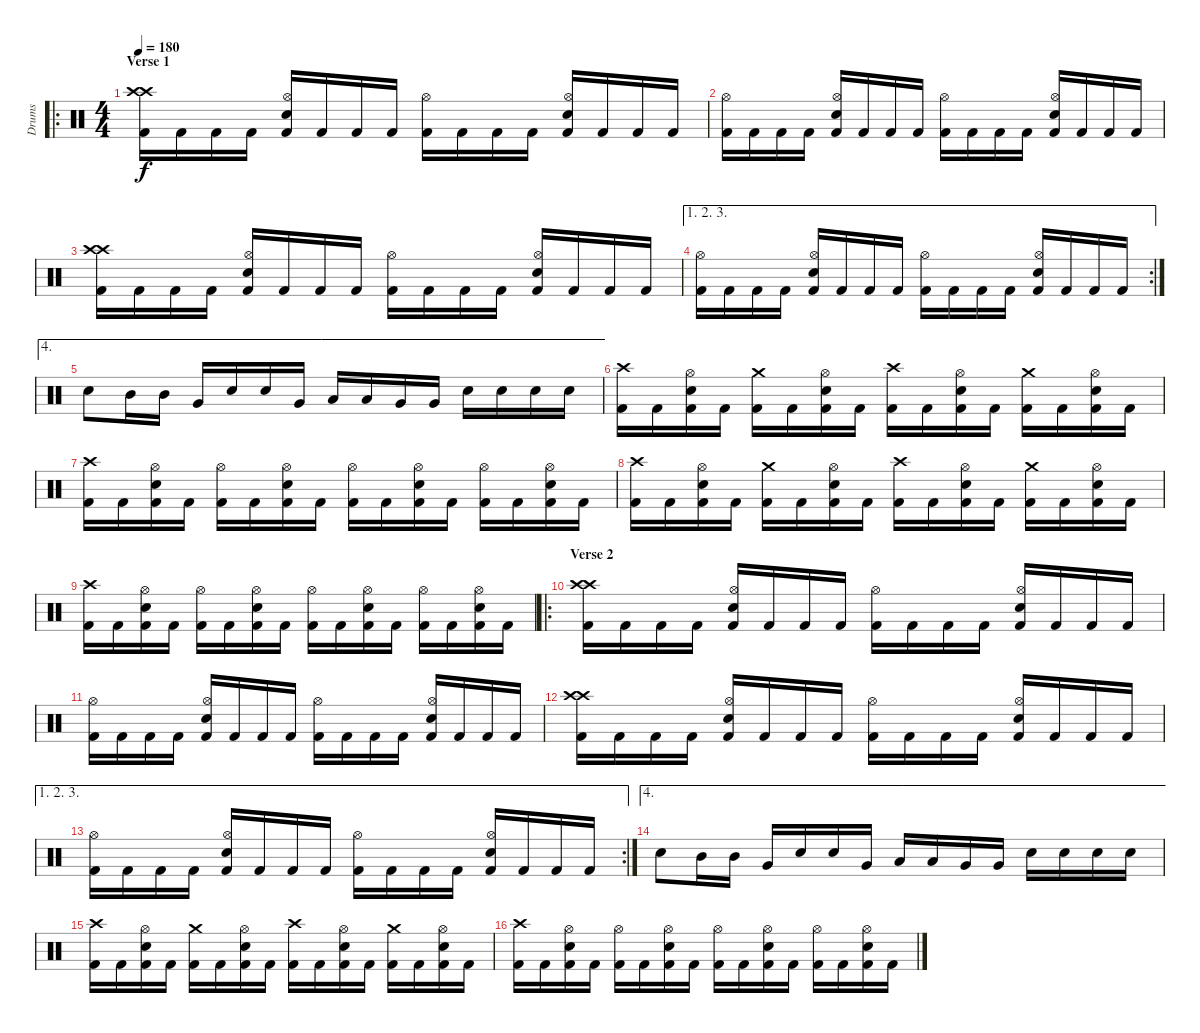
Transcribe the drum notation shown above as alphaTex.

\track ("Drums" "Drums") {instrument percussion}
\staff {score}
\articulation defaults
\ro
\ts (4 4)
\section ("" "Verse 1")
\tempo 180
\clef neutral
\ks c
("Crash high (hit)" "Crash high (hit)" "Kick (hit) 2").16{dy f} "Kick (hit) 2".16 "Kick (hit) 2".16 "Kick (hit) 2".16 ("Hi-Hat (open)" "Snare (hit) 2" "Kick (hit) 2").16 "Kick (hit) 2".16 "Kick (hit) 2".16 "Kick (hit) 2".16 ("Hi-Hat (open)" "Kick (hit) 2").16 "Kick (hit) 2".16 "Kick (hit) 2".16 "Kick (hit) 2".16 ("Hi-Hat (open)" "Snare (hit) 2" "Kick (hit) 2").16 "Kick (hit) 2".16 "Kick (hit) 2".16 "Kick (hit) 2".16 |
("Hi-Hat (open)" "Kick (hit) 2").16 "Kick (hit) 2".16 "Kick (hit) 2".16 "Kick (hit) 2".16 ("Hi-Hat (open)" "Snare (hit) 2" "Kick (hit) 2").16 "Kick (hit) 2".16 "Kick (hit) 2".16 "Kick (hit) 2".16 ("Hi-Hat (open)" "Kick (hit) 2").16 "Kick (hit) 2".16 "Kick (hit) 2".16 "Kick (hit) 2".16 ("Hi-Hat (open)" "Snare (hit) 2" "Kick (hit) 2").16 "Kick (hit) 2".16 "Kick (hit) 2".16 "Kick (hit) 2".16 |
("Crash high (hit)" "Crash high (hit)" "Kick (hit) 2").16 "Kick (hit) 2".16 "Kick (hit) 2".16 "Kick (hit) 2".16 ("Hi-Hat (open)" "Snare (hit) 2" "Kick (hit) 2").16 "Kick (hit) 2".16 "Kick (hit) 2".16 "Kick (hit) 2".16 ("Hi-Hat (open)" "Kick (hit) 2").16 "Kick (hit) 2".16 "Kick (hit) 2".16 "Kick (hit) 2".16 ("Hi-Hat (open)" "Snare (hit) 2" "Kick (hit) 2").16 "Kick (hit) 2".16 "Kick (hit) 2".16 "Kick (hit) 2".16 |
\ae (1 2 3)
\rc 2
("Hi-Hat (open)" "Kick (hit) 2").16 "Kick (hit) 2".16 "Kick (hit) 2".16 "Kick (hit) 2".16 ("Hi-Hat (open)" "Snare (hit) 2" "Kick (hit) 2").16 "Kick (hit) 2".16 "Kick (hit) 2".16 "Kick (hit) 2".16 ("Hi-Hat (open)" "Kick (hit) 2").16 "Kick (hit) 2".16 "Kick (hit) 2".16 "Kick (hit) 2".16 ("Hi-Hat (open)" "Snare (hit) 2" "Kick (hit) 2").16 "Kick (hit) 2".16 "Kick (hit) 2".16 "Kick (hit) 2".16 |
\ae 4 "Snare (hit) 2".8 "Mid Tom (hit)".16 "Mid Tom (hit)".16 "Very Low Tom (hit)".16 "Snare (hit) 2".16 "Snare (hit) 2".16 "Very Low Tom (hit)".16 "Low Tom (hit)".16 "Low Tom (hit)".16 "Very Low Tom (hit)".16 "Very Low Tom (hit)".16 "Snare (hit) 2".16 "Snare (hit) 2".16 "Snare (hit) 2".16 "Snare (hit) 2".16
|
("Crash high (hit)" "Kick (hit) 2").16 "Kick (hit) 2".16 ("Hi-Hat (open)" "Snare (hit) 2" "Kick (hit) 2").16 "Kick (hit) 2".16 ("Crash medium (hit)" "Kick (hit) 2").16 "Kick (hit) 2".16 ("Hi-Hat (open)" "Snare (hit) 2" "Kick (hit) 2").16 "Kick (hit) 2".16 ("Crash high (hit)" "Kick (hit) 2").16 "Kick (hit) 2".16 ("Hi-Hat (open)" "Snare (hit) 2" "Kick (hit) 2").16 "Kick (hit) 2".16 ("Crash medium (hit)" "Kick (hit) 2").16 "Kick (hit) 2".16 ("Hi-Hat (open)" "Snare (hit) 2" "Kick (hit) 2").16 "Kick (hit) 2".16 |
("Crash high (hit)" "Kick (hit) 2").16 "Kick (hit) 2".16 ("Hi-Hat (open)" "Snare (hit) 2" "Kick (hit) 2").16 "Kick (hit) 2".16 ("Hi-Hat (open)" "Kick (hit) 2").16 "Kick (hit) 2".16 ("Hi-Hat (open)" "Snare (hit) 2" "Kick (hit) 2").16 "Kick (hit) 2".16 ("Hi-Hat (open)" "Kick (hit) 2").16 "Kick (hit) 2".16 ("Hi-Hat (open)" "Snare (hit) 2" "Kick (hit) 2").16 "Kick (hit) 2".16 ("Hi-Hat (open)" "Kick (hit) 2").16 "Kick (hit) 2".16 ("Hi-Hat (open)" "Snare (hit) 2" "Kick (hit) 2").16 "Kick (hit) 2".16 |
("Crash high (hit)" "Kick (hit) 2").16 "Kick (hit) 2".16 ("Hi-Hat (open)" "Snare (hit) 2" "Kick (hit) 2").16 "Kick (hit) 2".16 ("Crash medium (hit)" "Kick (hit) 2").16 "Kick (hit) 2".16 ("Hi-Hat (open)" "Snare (hit) 2" "Kick (hit) 2").16 "Kick (hit) 2".16 ("Crash high (hit)" "Kick (hit) 2").16 "Kick (hit) 2".16 ("Hi-Hat (open)" "Snare (hit) 2" "Kick (hit) 2").16 "Kick (hit) 2".16 ("Crash medium (hit)" "Kick (hit) 2").16 "Kick (hit) 2".16 ("Hi-Hat (open)" "Snare (hit) 2" "Kick (hit) 2").16 "Kick (hit) 2".16 |
("Crash high (hit)" "Kick (hit) 2").16 "Kick (hit) 2".16 ("Hi-Hat (open)" "Snare (hit) 2" "Kick (hit) 2").16 "Kick (hit) 2".16 ("Hi-Hat (open)" "Kick (hit) 2").16 "Kick (hit) 2".16 ("Hi-Hat (open)" "Snare (hit) 2" "Kick (hit) 2").16 "Kick (hit) 2".16 ("Hi-Hat (open)" "Kick (hit) 2").16 "Kick (hit) 2".16 ("Hi-Hat (open)" "Snare (hit) 2" "Kick (hit) 2").16 "Kick (hit) 2".16 ("Hi-Hat (open)" "Kick (hit) 2").16 "Kick (hit) 2".16 ("Hi-Hat (open)" "Snare (hit) 2" "Kick (hit) 2").16 "Kick (hit) 2".16 |
\ro
\section ("" "Verse 2")
("Crash high (hit)" "Crash high (hit)" "Kick (hit) 2").16 "Kick (hit) 2".16 "Kick (hit) 2".16 "Kick (hit) 2".16 ("Hi-Hat (open)" "Snare (hit) 2" "Kick (hit) 2").16 "Kick (hit) 2".16 "Kick (hit) 2".16 "Kick (hit) 2".16 ("Hi-Hat (open)" "Kick (hit) 2").16 "Kick (hit) 2".16 "Kick (hit) 2".16 "Kick (hit) 2".16 ("Hi-Hat (open)" "Snare (hit) 2" "Kick (hit) 2").16 "Kick (hit) 2".16 "Kick (hit) 2".16 "Kick (hit) 2".16 |
("Hi-Hat (open)" "Kick (hit) 2").16 "Kick (hit) 2".16 "Kick (hit) 2".16 "Kick (hit) 2".16 ("Hi-Hat (open)" "Snare (hit) 2" "Kick (hit) 2").16 "Kick (hit) 2".16 "Kick (hit) 2".16 "Kick (hit) 2".16 ("Hi-Hat (open)" "Kick (hit) 2").16 "Kick (hit) 2".16 "Kick (hit) 2".16 "Kick (hit) 2".16 ("Hi-Hat (open)" "Snare (hit) 2" "Kick (hit) 2").16 "Kick (hit) 2".16 "Kick (hit) 2".16 "Kick (hit) 2".16 |
("Crash high (hit)" "Crash high (hit)" "Kick (hit) 2").16 "Kick (hit) 2".16 "Kick (hit) 2".16 "Kick (hit) 2".16 ("Hi-Hat (open)" "Snare (hit) 2" "Kick (hit) 2").16 "Kick (hit) 2".16 "Kick (hit) 2".16 "Kick (hit) 2".16 ("Hi-Hat (open)" "Kick (hit) 2").16 "Kick (hit) 2".16 "Kick (hit) 2".16 "Kick (hit) 2".16 ("Hi-Hat (open)" "Snare (hit) 2" "Kick (hit) 2").16 "Kick (hit) 2".16 "Kick (hit) 2".16 "Kick (hit) 2".16 |
\ae (1 2 3)
\rc 2
("Hi-Hat (open)" "Kick (hit) 2").16 "Kick (hit) 2".16 "Kick (hit) 2".16 "Kick (hit) 2".16 ("Hi-Hat (open)" "Snare (hit) 2" "Kick (hit) 2").16 "Kick (hit) 2".16 "Kick (hit) 2".16 "Kick (hit) 2".16 ("Hi-Hat (open)" "Kick (hit) 2").16 "Kick (hit) 2".16 "Kick (hit) 2".16 "Kick (hit) 2".16 ("Hi-Hat (open)" "Snare (hit) 2" "Kick (hit) 2").16 "Kick (hit) 2".16 "Kick (hit) 2".16 "Kick (hit) 2".16 |
\ae 4 "Snare (hit) 2".8 "Mid Tom (hit)".16 "Mid Tom (hit)".16 "Very Low Tom (hit)".16 "Snare (hit) 2".16 "Snare (hit) 2".16 "Very Low Tom (hit)".16 "Low Tom (hit)".16 "Low Tom (hit)".16 "Very Low Tom (hit)".16 "Very Low Tom (hit)".16 "Snare (hit) 2".16 "Snare (hit) 2".16 "Snare (hit) 2".16 "Snare (hit) 2".16
|
("Crash high (hit)" "Kick (hit) 2").16 "Kick (hit) 2".16 ("Hi-Hat (open)" "Snare (hit) 2" "Kick (hit) 2").16 "Kick (hit) 2".16 ("Crash medium (hit)" "Kick (hit) 2").16 "Kick (hit) 2".16 ("Hi-Hat (open)" "Snare (hit) 2" "Kick (hit) 2").16 "Kick (hit) 2".16 ("Crash high (hit)" "Kick (hit) 2").16 "Kick (hit) 2".16 ("Hi-Hat (open)" "Snare (hit) 2" "Kick (hit) 2").16 "Kick (hit) 2".16 ("Crash medium (hit)" "Kick (hit) 2").16 "Kick (hit) 2".16 ("Hi-Hat (open)" "Snare (hit) 2" "Kick (hit) 2").16 "Kick (hit) 2".16 |
("Crash high (hit)" "Kick (hit) 2").16 "Kick (hit) 2".16 ("Hi-Hat (open)" "Snare (hit) 2" "Kick (hit) 2").16 "Kick (hit) 2".16 ("Hi-Hat (open)" "Kick (hit) 2").16 "Kick (hit) 2".16 ("Hi-Hat (open)" "Snare (hit) 2" "Kick (hit) 2").16 "Kick (hit) 2".16 ("Hi-Hat (open)" "Kick (hit) 2").16 "Kick (hit) 2".16 ("Hi-Hat (open)" "Snare (hit) 2" "Kick (hit) 2").16 "Kick (hit) 2".16 ("Hi-Hat (open)" "Kick (hit) 2").16 "Kick (hit) 2".16 ("Hi-Hat (open)" "Snare (hit) 2" "Kick (hit) 2").16 "Kick (hit) 2".16
